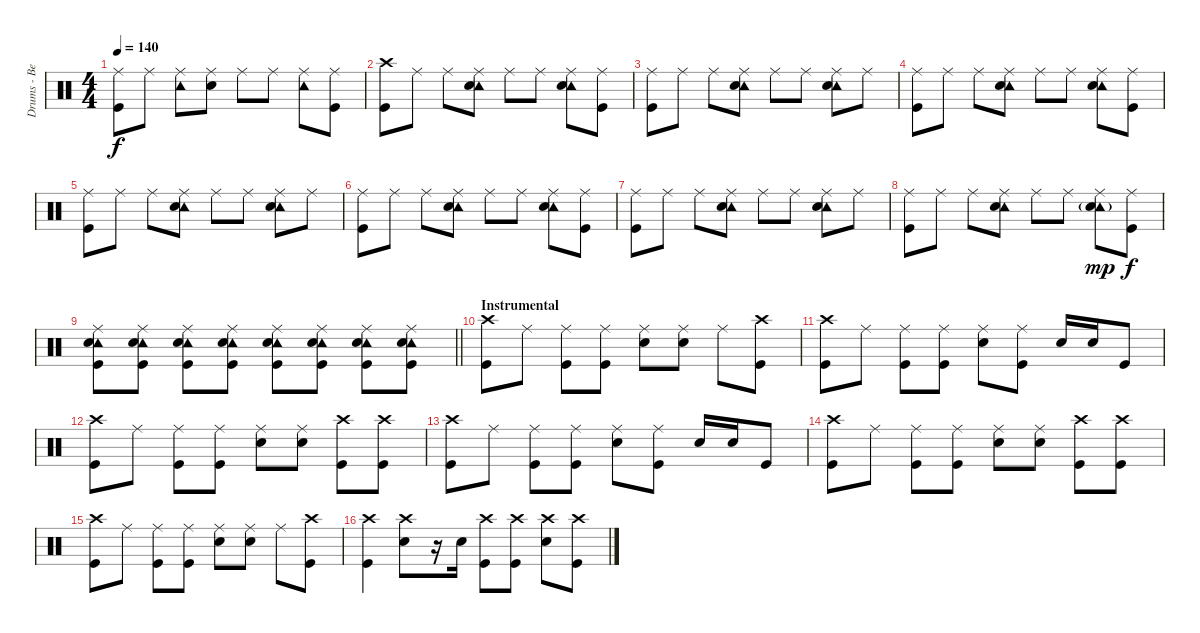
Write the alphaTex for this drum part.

\track ("Drums - Ben Johnston" "Drums - Be") {instrument percussion}
\staff {score}
\articulation defaults
\ts (4 4)
\tempo 140
\clef neutral
\ks c
("Ride (middle)" "Kick (hit)").8{dy f} "Ride (middle)".8 ("Ride (middle)" "Tambourine (hit)").8 ("Ride (middle)" "Snare (hit) 2").8 "Ride (middle)".8 "Ride (middle)".8 ("Ride (middle)" "Tambourine (hit)").8 ("Ride (middle)" "Kick (hit)").8 |
("Crash high (hit)" "Kick (hit)").8 "Ride (middle)".8 "Ride (middle)".8 ("Ride (middle)" "Tambourine (hit)" "Snare (hit) 2").8 "Ride (middle)".8 "Ride (middle)".8 ("Ride (middle)" "Tambourine (hit)" "Snare (hit) 2").8 ("Ride (middle)" "Kick (hit)").8 |
("Ride (middle)" "Kick (hit)").8 "Ride (middle)".8 "Ride (middle)".8 ("Ride (middle)" "Tambourine (hit)" "Snare (hit) 2").8 "Ride (middle)".8 "Ride (middle)".8 ("Ride (middle)" "Tambourine (hit)" "Snare (hit) 2").8 "Ride (middle)".8 |
("Ride (middle)" "Kick (hit)").8 "Ride (middle)".8 "Ride (middle)".8 ("Ride (middle)" "Tambourine (hit)" "Snare (hit) 2").8 "Ride (middle)".8 "Ride (middle)".8 ("Ride (middle)" "Tambourine (hit)" "Snare (hit) 2").8 ("Ride (middle)" "Kick (hit)").8 |
("Ride (middle)" "Kick (hit)").8 "Ride (middle)".8 "Ride (middle)".8 ("Ride (middle)" "Tambourine (hit)" "Snare (hit) 2").8 "Ride (middle)".8 "Ride (middle)".8 ("Ride (middle)" "Tambourine (hit)" "Snare (hit) 2").8 "Ride (middle)".8 |
("Ride (middle)" "Kick (hit)").8 "Ride (middle)".8 "Ride (middle)".8 ("Ride (middle)" "Tambourine (hit)" "Snare (hit) 2").8 "Ride (middle)".8 "Ride (middle)".8 ("Ride (middle)" "Tambourine (hit)" "Snare (hit) 2").8 ("Ride (middle)" "Kick (hit)").8 |
("Ride (middle)" "Kick (hit)").8 "Ride (middle)".8 "Ride (middle)".8 ("Ride (middle)" "Tambourine (hit)" "Snare (hit) 2").8 "Ride (middle)".8 "Ride (middle)".8 ("Ride (middle)" "Tambourine (hit)" "Snare (hit) 2").8 "Ride (middle)".8 |
("Ride (middle)" "Kick (hit)").8 "Ride (middle)".8 "Ride (middle)".8 ("Ride (middle)" "Tambourine (hit)" "Snare (hit) 2").8 "Ride (middle)".8 "Ride (middle)".8 ("Ride (middle)" "Tambourine (hit)"{g} "Snare (hit) 2"{g}).8{dy mp} ("Ride (middle)" "Kick (hit)").8{dy f} |
\barLineRight lightlight
("Ride (middle)" "Tambourine (hit)" "Snare (hit) 2" "Kick (hit)").8{volume 7} ("Ride (middle)" "Tambourine (hit)" "Snare (hit) 2" "Kick (hit)").8{volume 8} ("Ride (middle)" "Tambourine (hit)" "Snare (hit) 2" "Kick (hit)").8{volume 9} ("Ride (middle)" "Tambourine (hit)" "Snare (hit) 2" "Kick (hit)").8{volume 10} ("Ride (middle)" "Tambourine (hit)" "Snare (hit) 2" "Kick (hit)").8{volume 11} ("Ride (middle)" "Tambourine (hit)" "Snare (hit) 2" "Kick (hit)").8{volume 12} ("Ride (middle)" "Tambourine (hit)" "Snare (hit) 2" "Kick (hit)").8{volume 13} ("Ride (middle)" "Tambourine (hit)" "Snare (hit) 2" "Kick (hit)").8 |
\section ("" "Instrumental")
("Crash high (hit)" "Kick (hit)").8 "Ride (middle)".8 ("Ride (middle)" "Kick (hit)").8 ("Ride (middle)" "Kick (hit)").8 ("Ride (middle)" "Snare (hit) 2").8 ("Ride (middle)" "Snare (hit) 2").8 "Ride (middle)".8 ("Crash high (hit)" "Kick (hit)").8 |
("Crash high (hit)" "Kick (hit)").8 "Ride (middle)".8 ("Ride (middle)" "Kick (hit)").8 ("Ride (middle)" "Kick (hit)").8 ("Ride (middle)" "Snare (hit) 2").8 ("Ride (middle)" "Kick (hit)").8 "Snare (hit) 2".16 "Snare (hit) 2".16 "Kick (hit)".8 |
("Crash high (hit)" "Kick (hit)").8 "Ride (middle)".8 ("Ride (middle)" "Kick (hit)").8 ("Ride (middle)" "Kick (hit)").8 ("Ride (middle)" "Snare (hit) 2").8 ("Ride (middle)" "Snare (hit) 2").8 ("Crash high (hit)" "Kick (hit)").8 ("Crash high (hit)" "Kick (hit)").8 |
("Crash high (hit)" "Kick (hit)").8 "Ride (middle)".8 ("Ride (middle)" "Kick (hit)").8 ("Ride (middle)" "Kick (hit)").8 ("Ride (middle)" "Snare (hit) 2").8 ("Ride (middle)" "Kick (hit)").8 "Snare (hit) 2".16 "Snare (hit) 2".16 "Kick (hit)".8 |
("Crash high (hit)" "Kick (hit)").8 "Ride (middle)".8 ("Ride (middle)" "Kick (hit)").8 ("Ride (middle)" "Kick (hit)").8 ("Ride (middle)" "Snare (hit) 2").8 ("Ride (middle)" "Snare (hit) 2").8 ("Crash high (hit)" "Kick (hit)").8 ("Crash high (hit)" "Kick (hit)").8 |
("Crash high (hit)" "Kick (hit)").8 "Ride (middle)".8 ("Ride (middle)" "Kick (hit)").8 ("Ride (middle)" "Kick (hit)").8 ("Ride (middle)" "Snare (hit) 2").8 ("Ride (middle)" "Snare (hit) 2").8 "Ride (middle)".8 ("Crash high (hit)" "Kick (hit)").8 |
("Crash high (hit)" "Kick (hit)").4 ("Crash high (hit)" "Snare (hit) 2").8 r.16 "Snare (hit) 2".16 ("Crash high (hit)" "Kick (hit)").8 ("Crash high (hit)" "Kick (hit)").8 ("Crash high (hit)" "Snare (hit) 2").8 ("Crash high (hit)" "Kick (hit)").8
